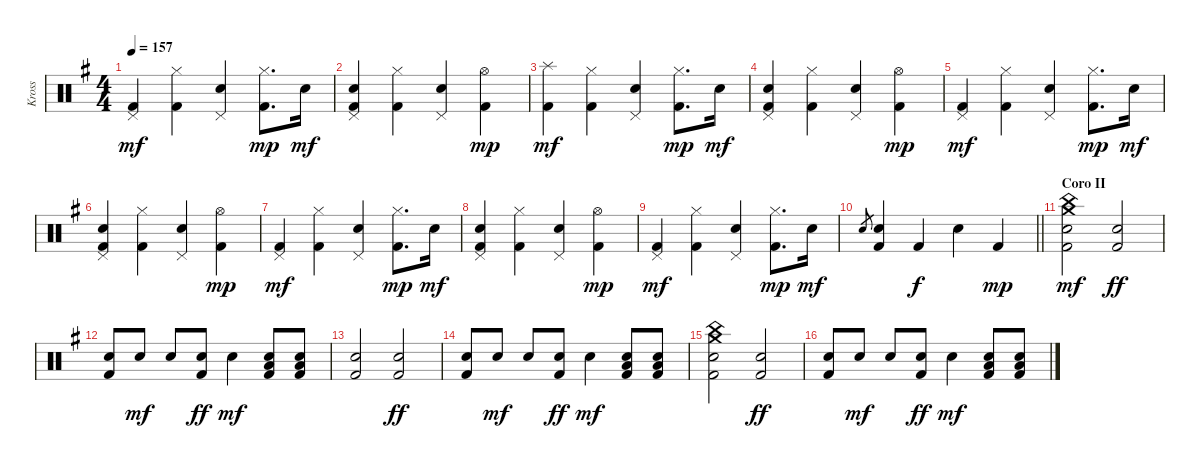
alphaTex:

\track ("Kross" "Kross") {instrument percussion}
\staff {score}
\articulation defaults
\ts (4 4)
\tempo 157
\clef neutral
\ks g
("Pedal Hi-Hat (hit)" "Kick (hit) 2").4{dy mf} ("Hi-Hat (closed)" "Kick (hit) 2").4 ("Pedal Hi-Hat (hit)" "Snare (hit) 2").4 ("Hi-Hat (closed)" "Kick (hit) 2").8{d dy mp} "Electric Snare (hit)".16{dy mf} |
("Pedal Hi-Hat (hit)" "Snare (hit) 2" "Kick (hit) 2").4 ("Hi-Hat (closed)" "Kick (hit) 2").4 ("Pedal Hi-Hat (hit)" "Snare (hit) 2").4 ("Hi-Hat (open)" "Kick (hit) 2").4{dy mp} |
("Splash (hit)" "Kick (hit) 2").4{dy mf} ("Hi-Hat (closed)" "Kick (hit) 2").4 ("Pedal Hi-Hat (hit)" "Snare (hit) 2").4 ("Hi-Hat (closed)" "Kick (hit) 2").8{d dy mp} "Electric Snare (hit)".16{dy mf} |
("Pedal Hi-Hat (hit)" "Snare (hit) 2" "Kick (hit) 2").4 ("Hi-Hat (closed)" "Kick (hit) 2").4 ("Pedal Hi-Hat (hit)" "Snare (hit) 2").4 ("Hi-Hat (open)" "Kick (hit) 2").4{dy mp} |
("Pedal Hi-Hat (hit)" "Kick (hit) 2").4{dy mf} ("Hi-Hat (closed)" "Kick (hit) 2").4 ("Pedal Hi-Hat (hit)" "Snare (hit) 2").4 ("Hi-Hat (closed)" "Kick (hit) 2").8{d dy mp} "Electric Snare (hit)".16{dy mf} |
("Pedal Hi-Hat (hit)" "Snare (hit) 2" "Kick (hit) 2").4 ("Hi-Hat (closed)" "Kick (hit) 2").4 ("Pedal Hi-Hat (hit)" "Snare (hit) 2").4 ("Hi-Hat (open)" "Kick (hit) 2").4{dy mp} |
("Pedal Hi-Hat (hit)" "Kick (hit) 2").4{dy mf} ("Hi-Hat (closed)" "Kick (hit) 2").4 ("Pedal Hi-Hat (hit)" "Snare (hit) 2").4 ("Hi-Hat (closed)" "Kick (hit) 2").8{d dy mp} "Electric Snare (hit)".16{dy mf} |
("Pedal Hi-Hat (hit)" "Snare (hit) 2" "Kick (hit) 2").4 ("Hi-Hat (closed)" "Kick (hit) 2").4 ("Pedal Hi-Hat (hit)" "Snare (hit) 2").4 ("Hi-Hat (open)" "Kick (hit) 2").4{dy mp} |
("Pedal Hi-Hat (hit)" "Kick (hit) 2").4{dy mf} ("Hi-Hat (closed)" "Kick (hit) 2").4 ("Pedal Hi-Hat (hit)" "Snare (hit) 2").4 ("Hi-Hat (closed)" "Kick (hit) 2").8{d dy mp} "Electric Snare (hit)".16{dy mf} |
\barLineRight lightlight "Electric Snare (hit)".8{gr}
("Snare (hit) 2" "Kick (hit) 2").4 "Kick (hit) 2".4{dy f} "Snare (hit) 2".4 "Kick (hit) 2".4{dy mp} |
\section ("" "Coro II")
("Crash medium (hit)" "Electric Snare (hit)" "China (hit)" "Kick (hit) 2").2{dy mf volume 16} ("Electric Snare (hit)" "Kick (hit) 2").2{dy ff} |
("Electric Snare (hit)" "Kick (hit) 2").8 "Electric Snare (hit)".8{dy mf} "Electric Snare (hit)".8 ("Electric Snare (hit)" "Kick (hit) 2").8{dy ff} "Electric Snare (hit)".4{dy mf} ("Electric Snare (hit)" "Low Floor Tom (hit)" "Kick (hit) 2").8 ("Electric Snare (hit)" "Low Floor Tom (hit)" "Kick (hit) 2").8 |
("Electric Snare (hit)" "Kick (hit) 2").2 ("Electric Snare (hit)" "Kick (hit) 2").2{dy ff} |
("Electric Snare (hit)" "Kick (hit) 2").8 "Electric Snare (hit)".8{dy mf} "Electric Snare (hit)".8 ("Electric Snare (hit)" "Kick (hit) 2").8{dy ff} "Electric Snare (hit)".4{dy mf} ("Electric Snare (hit)" "Low Floor Tom (hit)" "Kick (hit) 2").8 ("Electric Snare (hit)" "Low Floor Tom (hit)" "Kick (hit) 2").8 |
("Crash medium (hit)" "Electric Snare (hit)" "China (hit)" "Kick (hit) 2").2 ("Electric Snare (hit)" "Kick (hit) 2").2{dy ff} |
("Electric Snare (hit)" "Kick (hit) 2").8 "Electric Snare (hit)".8{dy mf} "Electric Snare (hit)".8 ("Electric Snare (hit)" "Kick (hit) 2").8{dy ff} "Electric Snare (hit)".4{dy mf} ("Electric Snare (hit)" "Low Floor Tom (hit)" "Kick (hit) 2").8 ("Electric Snare (hit)" "Low Floor Tom (hit)" "Kick (hit) 2").8
